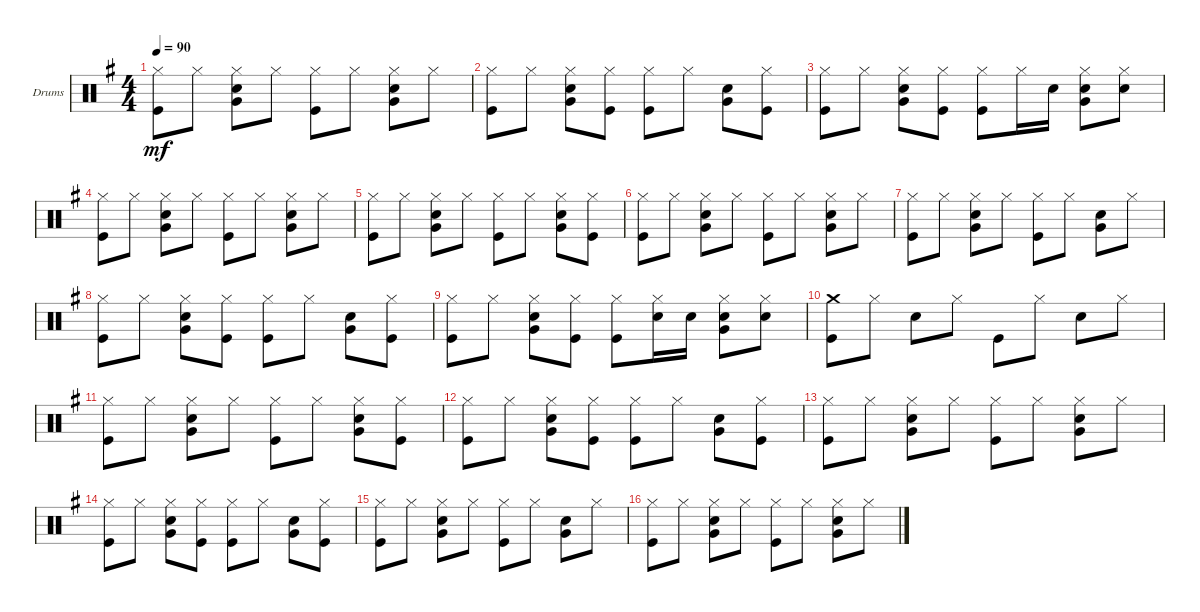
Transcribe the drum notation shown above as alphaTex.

\defaultSystemsLayout 4
\bracketExtendMode groupsimilarinstruments
\firstSystemTrackNameOrientation horizontal
\otherSystemsTrackNameOrientation horizontal
\track ("Drumkit" "Drums") {instrument percussion}
\staff {score}
\articulation defaults
\ts (4 4)
\tempo 90
\clef neutral
\scale
0.333333
\ks g
("Kick (hit)" "Hi-Hat (closed)").8{dy mf} "Hi-Hat (closed)".8 ("Snare (hit) 2" "Hi-Hat (closed)" "Very Low Tom (hit)").8 "Hi-Hat (closed)".8 ("Kick (hit)" "Hi-Hat (closed)").8 "Hi-Hat (closed)".8 ("Snare (hit) 2" "Hi-Hat (closed)" "Very Low Tom (hit)").8 "Hi-Hat (closed)".8 |
\scale
0.333333 ("Kick (hit)" "Hi-Hat (closed)").8 "Hi-Hat (closed)".8 ("Snare (hit) 2" "Hi-Hat (closed)" "Very Low Tom (hit)").8 ("Kick (hit)" "Hi-Hat (closed)").8 ("Kick (hit)" "Hi-Hat (closed)").8 "Hi-Hat (closed)".8 ("Snare (hit) 2" "Very Low Tom (hit)").8 ("Kick (hit)" "Hi-Hat (closed)").8 |
\scale
0.333333 ("Kick (hit)" "Hi-Hat (closed)").8 "Hi-Hat (closed)".8 ("Snare (hit) 2" "Hi-Hat (closed)" "Very Low Tom (hit)").8 ("Kick (hit)" "Hi-Hat (closed)").8 ("Kick (hit)" "Hi-Hat (closed)").8 "Hi-Hat (closed)".16 "Snare (hit) 2".16 ("Snare (hit) 2" "Hi-Hat (closed)" "Very Low Tom (hit)").8 ("Snare (hit) 2" "Hi-Hat (closed)").8 |
\scale
0.333333 ("Kick (hit)" "Hi-Hat (closed)").8 "Hi-Hat (closed)".8 ("Snare (hit) 2" "Hi-Hat (closed)" "Very Low Tom (hit)").8 "Hi-Hat (closed)".8 ("Kick (hit)" "Hi-Hat (closed)").8 "Hi-Hat (closed)".8 ("Snare (hit) 2" "Hi-Hat (closed)" "Very Low Tom (hit)").8 "Hi-Hat (closed)".8 |
\scale
0.333333 ("Kick (hit)" "Hi-Hat (closed)").8 "Hi-Hat (closed)".8 ("Snare (hit) 2" "Hi-Hat (closed)" "Very Low Tom (hit)").8 "Hi-Hat (closed)".8 ("Kick (hit)" "Hi-Hat (closed)").8 "Hi-Hat (closed)".8 ("Snare (hit) 2" "Hi-Hat (closed)" "Very Low Tom (hit)").8 ("Kick (hit)" "Hi-Hat (closed)").8 |
\scale
0.333333 ("Kick (hit)" "Hi-Hat (closed)").8 "Hi-Hat (closed)".8 ("Snare (hit) 2" "Hi-Hat (closed)" "Very Low Tom (hit)").8 "Hi-Hat (closed)".8 ("Kick (hit)" "Hi-Hat (closed)").8 "Hi-Hat (closed)".8 ("Snare (hit) 2" "Hi-Hat (closed)" "Very Low Tom (hit)").8 "Hi-Hat (closed)".8 |
\scale
0.333333 ("Kick (hit)" "Hi-Hat (closed)").8 "Hi-Hat (closed)".8 ("Snare (hit) 2" "Hi-Hat (closed)" "Very Low Tom (hit)").8 "Hi-Hat (closed)".8 ("Kick (hit)" "Hi-Hat (closed)").8 "Hi-Hat (closed)".8 ("Snare (hit) 2" "Very Low Tom (hit)").8 "Hi-Hat (closed)".8 |
\scale
0.333333 ("Kick (hit)" "Hi-Hat (closed)").8 "Hi-Hat (closed)".8 ("Snare (hit) 2" "Hi-Hat (closed)" "Very Low Tom (hit)").8 ("Kick (hit)" "Hi-Hat (closed)").8 ("Kick (hit)" "Hi-Hat (closed)").8 "Hi-Hat (closed)".8 ("Snare (hit) 2" "Very Low Tom (hit)").8 ("Kick (hit)" "Hi-Hat (closed)").8 |
\scale
0.333333 ("Kick (hit)" "Hi-Hat (closed)").8 "Hi-Hat (closed)".8 ("Snare (hit) 2" "Hi-Hat (closed)" "Very Low Tom (hit)").8 ("Kick (hit)" "Hi-Hat (closed)").8 ("Kick (hit)" "Hi-Hat (closed)").8 ("Snare (hit) 2" "Hi-Hat (closed)").16 "Snare (hit) 2".16 ("Snare (hit) 2" "Hi-Hat (closed)" "Very Low Tom (hit)").8 ("Snare (hit) 2" "Hi-Hat (closed)").8 |
\scale
0.333333 ("Kick (hit)" "Crash medium (hit)").8 "Hi-Hat (closed)".8 "Snare (hit) 2".8 "Hi-Hat (closed)".8 "Kick (hit)".8 "Hi-Hat (closed)".8 "Snare (hit) 2".8 "Hi-Hat (closed)".8 |
\scale
0.333333 ("Kick (hit)" "Hi-Hat (closed)").8 "Hi-Hat (closed)".8 ("Snare (hit) 2" "Hi-Hat (closed)" "Very Low Tom (hit)").8 "Hi-Hat (closed)".8 ("Kick (hit)" "Hi-Hat (closed)").8 "Hi-Hat (closed)".8 ("Snare (hit) 2" "Hi-Hat (closed)" "Very Low Tom (hit)").8 ("Kick (hit)" "Hi-Hat (closed)").8 |
\scale
0.333333 ("Kick (hit)" "Hi-Hat (closed)").8 "Hi-Hat (closed)".8 ("Snare (hit) 2" "Hi-Hat (closed)" "Very Low Tom (hit)").8 ("Kick (hit)" "Hi-Hat (closed)").8 ("Kick (hit)" "Hi-Hat (closed)").8 "Hi-Hat (closed)".8 ("Snare (hit) 2" "Very Low Tom (hit)").8 ("Kick (hit)" "Hi-Hat (closed)").8 |
\scale
0.333333 ("Kick (hit)" "Hi-Hat (closed)").8 "Hi-Hat (closed)".8 ("Snare (hit) 2" "Hi-Hat (closed)" "Very Low Tom (hit)").8 "Hi-Hat (closed)".8 ("Kick (hit)" "Hi-Hat (closed)").8 "Hi-Hat (closed)".8 ("Snare (hit) 2" "Hi-Hat (closed)" "Very Low Tom (hit)").8 "Hi-Hat (closed)".8 |
\scale
0.333333 ("Kick (hit)" "Hi-Hat (closed)").8 "Hi-Hat (closed)".8 ("Snare (hit) 2" "Hi-Hat (closed)" "Very Low Tom (hit)").8 ("Kick (hit)" "Hi-Hat (closed)").8 ("Kick (hit)" "Hi-Hat (closed)").8 "Hi-Hat (closed)".8 ("Snare (hit) 2" "Very Low Tom (hit)").8 ("Kick (hit)" "Hi-Hat (closed)").8 |
\scale
0.333333 ("Kick (hit)" "Hi-Hat (closed)").8 "Hi-Hat (closed)".8 ("Snare (hit) 2" "Hi-Hat (closed)" "Very Low Tom (hit)").8 "Hi-Hat (closed)".8 ("Kick (hit)" "Hi-Hat (closed)").8 "Hi-Hat (closed)".8 ("Snare (hit) 2" "Very Low Tom (hit)").8 "Hi-Hat (closed)".8 |
\scale
0.333333 ("Kick (hit)" "Hi-Hat (closed)").8 "Hi-Hat (closed)".8 ("Snare (hit) 2" "Hi-Hat (closed)" "Very Low Tom (hit)").8 "Hi-Hat (closed)".8 ("Kick (hit)" "Hi-Hat (closed)").8 "Hi-Hat (closed)".8 ("Snare (hit) 2" "Hi-Hat (closed)" "Very Low Tom (hit)").8 "Hi-Hat (closed)".8
